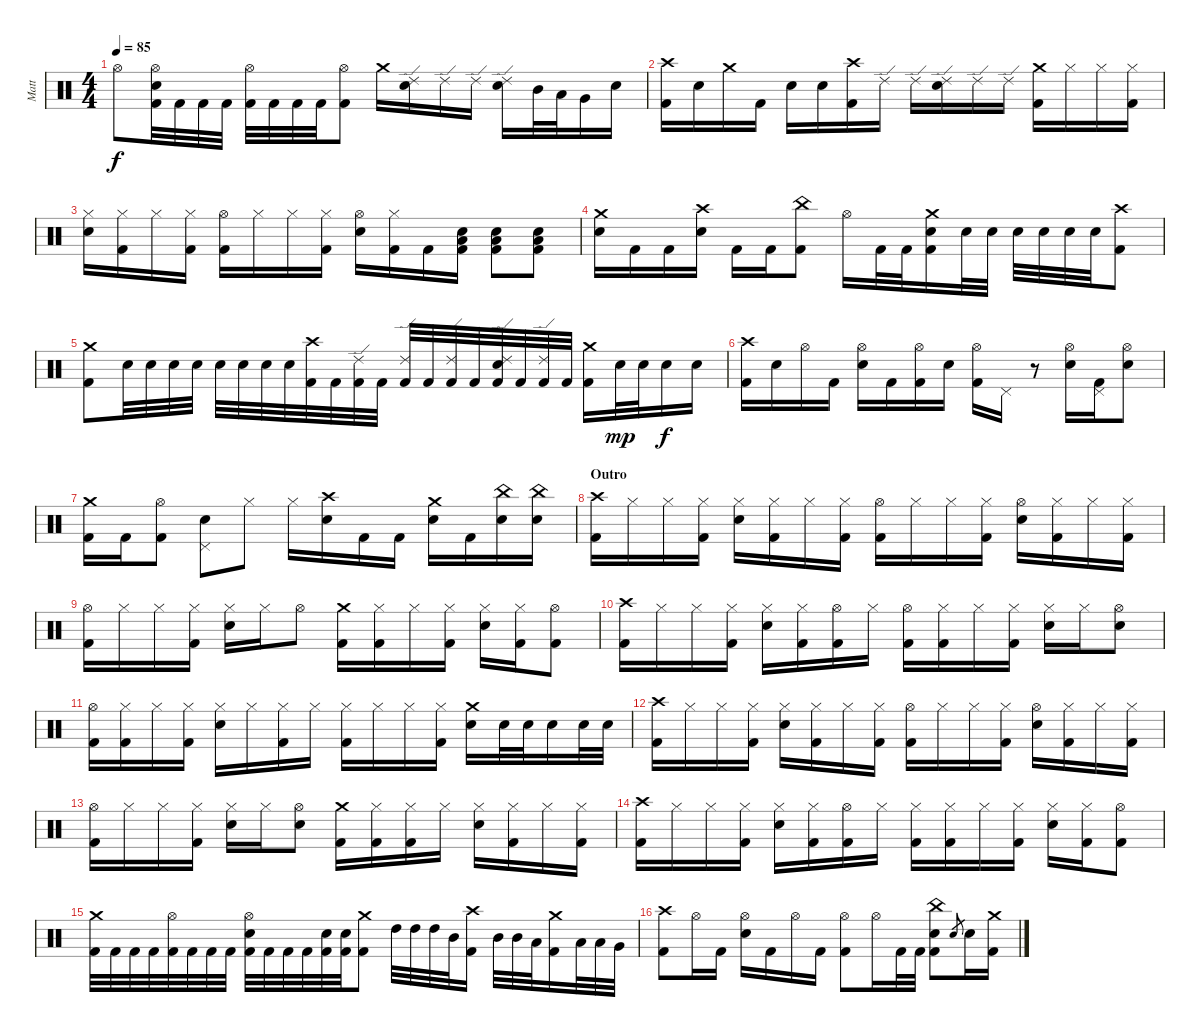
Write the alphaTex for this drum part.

\track ("Matt" "Matt") {instrument percussion}
\staff {score}
\articulation defaults
\ts (4 4)
\tempo 85
\clef neutral
\ks c "Hi-Hat (open)".8{dy f}
("Hi-Hat (open)" "Electric Snare (hit)" "Kick (hit) 2").32 "Kick (hit) 2".32 "Kick (hit) 2".32 "Kick (hit) 2".32 ("Hi-Hat (open)" "Kick (hit) 2").32 "Kick (hit) 2".32 "Kick (hit) 2".32 "Kick (hit) 2".32 ("Hi-Hat (open)" "Kick (hit) 2").8 "Crash medium (hit)".16 ("Ride (edge) 2" "Electric Snare (hit)").16 "Ride (edge) 2".16 "Ride (edge) 2".16 ("Ride (edge) 2" "Electric Snare (hit)").16 "Mid Tom (hit)".32 "Low Tom (hit)".32 "Very Low Tom (hit)".16 "Electric Snare (hit)".16 |
("Crash high (hit)" "Kick (hit) 2").16 "Electric Snare (hit)".16 "Crash medium (hit)".16 "Kick (hit) 2".16 "Electric Snare (hit)".16 "Electric Snare (hit)".16 ("Crash high (hit)" "Kick (hit) 2").16 "Ride (edge) 2".16 "Ride (edge) 2".16 ("Ride (edge) 2" "Electric Snare (hit)").16 "Ride (edge) 2".16 "Ride (edge) 2".16 ("Crash medium (hit)" "Kick (hit) 2").16 "Hi-Hat (closed)".16 "Hi-Hat (closed)".16 ("Hi-Hat (closed)" "Kick (hit) 2").16 |
("Hi-Hat (closed)" "Electric Snare (hit)").16 ("Hi-Hat (closed)" "Kick (hit) 2").16 "Hi-Hat (closed)".16 ("Hi-Hat (closed)" "Kick (hit) 2").16 ("Hi-Hat (open)" "Kick (hit) 2").16 "Hi-Hat (closed)".16 "Hi-Hat (closed)".16 ("Hi-Hat (closed)" "Kick (hit) 2").16 ("Hi-Hat (open)" "Electric Snare (hit)").16 ("Hi-Hat (closed)" "Kick (hit) 2").16 "Kick (hit) 2".16 ("Electric Snare (hit)" "Low Tom (hit)" "Kick (hit) 2").16 ("Electric Snare (hit)" "Low Tom (hit)" "Kick (hit) 2").8 ("Electric Snare (hit)" "Low Tom (hit)" "Kick (hit) 2").8 |
("Crash medium (hit)" "Electric Snare (hit)").16 "Kick (hit) 2".16 "Kick (hit) 2".16 ("Crash high (hit)" "Electric Snare (hit)").16 "Kick (hit) 2".16 "Kick (hit) 2".16 ("China (hit)" "Kick (hit) 2").8 "Hi-Hat (open)".16 "Kick (hit) 2".32 "Kick (hit) 2".32 ("Crash medium (hit)" "Electric Snare (hit)" "Kick (hit) 2").16 "Electric Snare (hit)".32 "Electric Snare (hit)".32 "Electric Snare (hit)".32 "Electric Snare (hit)".32 "Electric Snare (hit)".32 "Electric Snare (hit)".32 ("Crash high (hit)" "Kick (hit) 2").8 |
("Crash medium (hit)" "Kick (hit) 2").8 "Electric Snare (hit)".32 "Electric Snare (hit)".32 "Electric Snare (hit)".32 "Electric Snare (hit)".32 "Electric Snare (hit)".32 "Electric Snare (hit)".32 "Electric Snare (hit)".32 "Electric Snare (hit)".32 ("Crash high (hit)" "Kick (hit) 2").32 "Kick (hit) 2".32 ("Ride (edge) 2" "Kick (hit) 2").32 "Kick (hit) 2".32 ("Ride (edge) 2" "Kick (hit) 2").32 "Kick (hit) 2".32 ("Ride (edge) 2" "Kick (hit) 2").32 "Kick (hit) 2".32 ("Ride (edge) 2" "Electric Snare (hit)" "Kick (hit) 2").32 "Kick (hit) 2".32 ("Ride (edge) 2" "Kick (hit) 2").32 "Kick (hit) 2".32 ("Crash medium (hit)" "Kick (hit) 2").16 "Electric Snare (hit)".32{dy mp} "Electric Snare (hit)".32 "Electric Snare (hit)".16{dy f} "Electric Snare (hit)".16 |
("Crash high (hit)" "Kick (hit) 2").16 "Electric Snare (hit)".16 "Hi-Hat (open)".16 "Kick (hit) 2".16 ("Hi-Hat (open)" "Electric Snare (hit)").16 "Kick (hit) 2".16 ("Hi-Hat (open)" "Kick (hit) 2").16 "Electric Snare (hit)".16 ("Hi-Hat (open)" "Kick (hit) 2").16 "Pedal Hi-Hat (hit)".16 r.8 ("Hi-Hat (open)" "Electric Snare (hit)").16 ("Pedal Hi-Hat (hit)" "Kick (hit) 2").16 ("Hi-Hat (open)" "Electric Snare (hit)").8 |
("Crash medium (hit)" "Kick (hit) 2").16 "Kick (hit) 2".16 ("Hi-Hat (open)" "Kick (hit) 2").8 ("Pedal Hi-Hat (hit)" "Electric Snare (hit)").8 "Hi-Hat (closed)".8 "Hi-Hat (closed)".16 ("Crash high (hit)" "Electric Snare (hit)").16 "Kick (hit) 2".16 "Kick (hit) 2".16 ("Crash medium (hit)" "Electric Snare (hit)").16 "Kick (hit) 2".16 ("China (hit)" "Electric Snare (hit)").16 ("China (hit)" "Electric Snare (hit)").16 |
\section ("" "Outro")
("Crash high (hit)" "Kick (hit) 2").16 "Hi-Hat (closed)".16 "Hi-Hat (closed)".16 ("Hi-Hat (closed)" "Kick (hit) 2").16 ("Hi-Hat (closed)" "Electric Snare (hit)").16 ("Hi-Hat (closed)" "Kick (hit) 2").16 "Hi-Hat (closed)".16 ("Hi-Hat (closed)" "Kick (hit) 2").16 ("Hi-Hat (open)" "Kick (hit) 2").16 "Hi-Hat (closed)".16 "Hi-Hat (closed)".16 ("Hi-Hat (closed)" "Kick (hit) 2").16 ("Hi-Hat (open)" "Electric Snare (hit)").16 ("Hi-Hat (closed)" "Kick (hit) 2").16 "Hi-Hat (closed)".16 ("Hi-Hat (closed)" "Kick (hit) 2").16 |
("Hi-Hat (open)" "Kick (hit) 2").16 "Hi-Hat (closed)".16 "Hi-Hat (closed)".16 ("Hi-Hat (closed)" "Kick (hit) 2").16 ("Hi-Hat (closed)" "Electric Snare (hit)").16 "Hi-Hat (closed)".16 "Hi-Hat (open)".8 ("Crash medium (hit)" "Kick (hit) 2").16 ("Hi-Hat (closed)" "Kick (hit) 2").16 "Hi-Hat (closed)".16 ("Hi-Hat (closed)" "Kick (hit) 2").16 ("Hi-Hat (closed)" "Electric Snare (hit)").16 ("Hi-Hat (closed)" "Kick (hit) 2").16 ("Hi-Hat (open)" "Kick (hit) 2").8 |
("Crash high (hit)" "Kick (hit) 2").16 "Hi-Hat (closed)".16 "Hi-Hat (closed)".16 ("Hi-Hat (closed)" "Kick (hit) 2").16 ("Hi-Hat (closed)" "Electric Snare (hit)").16 ("Hi-Hat (closed)" "Kick (hit) 2").16 ("Hi-Hat (open)" "Kick (hit) 2").16 "Hi-Hat (closed)".16 ("Hi-Hat (open)" "Kick (hit) 2").16 ("Hi-Hat (closed)" "Kick (hit) 2").16 "Hi-Hat (closed)".16 ("Hi-Hat (closed)" "Kick (hit) 2").16 ("Hi-Hat (closed)" "Electric Snare (hit)").16 "Hi-Hat (closed)".16 ("Hi-Hat (open)" "Electric Snare (hit)").8 |
("Hi-Hat (open)" "Kick (hit) 2").16 ("Hi-Hat (closed)" "Kick (hit) 2").16 "Hi-Hat (closed)".16 ("Hi-Hat (closed)" "Kick (hit) 2").16 ("Hi-Hat (closed)" "Electric Snare (hit)").16 "Hi-Hat (closed)".16 ("Hi-Hat (closed)" "Kick (hit) 2").16 "Hi-Hat (closed)".16 ("Hi-Hat (closed)" "Kick (hit) 2").16 "Hi-Hat (closed)".16 "Hi-Hat (closed)".16 ("Hi-Hat (closed)" "Kick (hit) 2").16 ("Crash medium (hit)" "Electric Snare (hit)").16 "Electric Snare (hit)".32 "Electric Snare (hit)".32 "Electric Snare (hit)".16 "Electric Snare (hit)".32 "Electric Snare (hit)".32 |
("Crash high (hit)" "Kick (hit) 2").16 "Hi-Hat (closed)".16 "Hi-Hat (closed)".16 ("Hi-Hat (closed)" "Kick (hit) 2").16 ("Hi-Hat (closed)" "Electric Snare (hit)").16 ("Hi-Hat (closed)" "Kick (hit) 2").16 "Hi-Hat (closed)".16 ("Hi-Hat (closed)" "Kick (hit) 2").16 ("Hi-Hat (open)" "Kick (hit) 2").16 "Hi-Hat (closed)".16 "Hi-Hat (closed)".16 ("Hi-Hat (closed)" "Kick (hit) 2").16 ("Hi-Hat (open)" "Electric Snare (hit)").16 ("Hi-Hat (closed)" "Kick (hit) 2").16 "Hi-Hat (closed)".16 ("Hi-Hat (closed)" "Kick (hit) 2").16 |
("Hi-Hat (open)" "Kick (hit) 2").16 "Hi-Hat (closed)".16 "Hi-Hat (closed)".16 ("Hi-Hat (closed)" "Kick (hit) 2").16 ("Hi-Hat (closed)" "Electric Snare (hit)").16 "Hi-Hat (closed)".16 ("Hi-Hat (open)" "Electric Snare (hit)").8 ("Crash medium (hit)" "Kick (hit) 2").16 ("Hi-Hat (closed)" "Kick (hit) 2").16 ("Hi-Hat (closed)" "Kick (hit) 2").16 "Hi-Hat (closed)".16 ("Hi-Hat (closed)" "Electric Snare (hit)").16 ("Hi-Hat (closed)" "Kick (hit) 2").16 "Hi-Hat (closed)".16 ("Hi-Hat (closed)" "Kick (hit) 2").16 |
("Crash high (hit)" "Kick (hit) 2").16 "Hi-Hat (closed)".16 "Hi-Hat (closed)".16 ("Hi-Hat (closed)" "Kick (hit) 2").16 ("Hi-Hat (closed)" "Electric Snare (hit)").16 ("Hi-Hat (closed)" "Kick (hit) 2").16 ("Hi-Hat (open)" "Kick (hit) 2").16 "Hi-Hat (closed)".16 ("Hi-Hat (closed)" "Kick (hit) 2").16 ("Hi-Hat (closed)" "Kick (hit) 2").16 "Hi-Hat (closed)".16 ("Hi-Hat (closed)" "Kick (hit) 2").16 ("Hi-Hat (closed)" "Electric Snare (hit)").16 ("Hi-Hat (closed)" "Kick (hit) 2").16 ("Hi-Hat (open)" "Kick (hit) 2").8 |
("Crash medium (hit)" "Kick (hit) 2").32 "Kick (hit) 2".32 "Kick (hit) 2".32 "Kick (hit) 2".32 ("Hi-Hat (open)" "Kick (hit) 2").32 "Kick (hit) 2".32 "Kick (hit) 2".32 "Kick (hit) 2".32 ("Hi-Hat (open)" "Electric Snare (hit)" "Kick (hit) 2").32 "Kick (hit) 2".32 "Kick (hit) 2".32 "Kick (hit) 2".32 ("Electric Snare (hit)" "Kick (hit) 2").32 ("Electric Snare (hit)" "Kick (hit) 2").32 ("Crash medium (hit)" "Kick (hit) 2").8 "High Tom (hit)".32 "High Tom (hit)".32 "High Tom (hit)".32 "Mid Tom (hit)".32 ("Crash high (hit)" "Kick (hit) 2").16 "Mid Tom (hit)".32 "Mid Tom (hit)".32 "Low Tom (hit)".32 ("Crash medium (hit)" "Kick (hit) 2").16 "Low Tom (hit)".32 "Low Tom (hit)".32 "Very Low Tom (hit)".32 |
("Crash high (hit)" "Kick (hit) 2").8 "Hi-Hat (open)".16 "Kick (hit) 2".16 ("Hi-Hat (open)" "Electric Snare (hit)").16 "Kick (hit) 2".16 "Hi-Hat (open)".16 "Kick (hit) 2".16 ("Hi-Hat (open)" "Kick (hit) 2").8 "Hi-Hat (open)".16 "Kick (hit) 2".32 "Kick (hit) 2".32 ("China (hit)" "Electric Snare (hit)" "Kick (hit) 2").8 "Electric Snare (hit)".8{gr} "Electric Snare (hit)".16 ("Crash medium (hit)" "Kick (hit) 2").16
